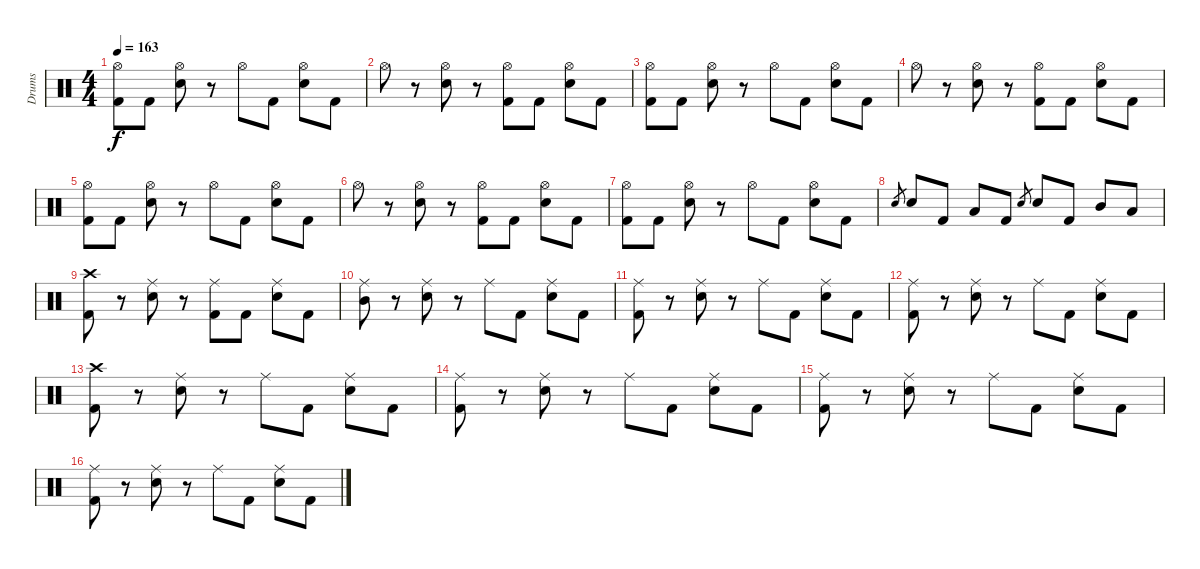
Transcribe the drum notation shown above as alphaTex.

\track ("Drums" "Drums") {instrument percussion}
\staff {score}
\articulation defaults
\ts (4 4)
\tempo 163
\clef neutral
\ks c
("Hi-Hat (open)" "Kick (hit) 2").8{dy f} "Kick (hit) 2".8 ("Hi-Hat (open)" "Electric Snare (hit)").8 r.8 "Hi-Hat (open)".8 "Kick (hit) 2".8 ("Hi-Hat (open)" "Electric Snare (hit)").8 "Kick (hit) 2".8 |
"Hi-Hat (open)".8 r.8 ("Hi-Hat (open)" "Electric Snare (hit)").8 r.8 ("Hi-Hat (open)" "Kick (hit) 2").8 "Kick (hit) 2".8 ("Hi-Hat (open)" "Electric Snare (hit)").8 "Kick (hit) 2".8 |
("Hi-Hat (open)" "Kick (hit) 2").8 "Kick (hit) 2".8 ("Hi-Hat (open)" "Electric Snare (hit)").8 r.8 "Hi-Hat (open)".8 "Kick (hit) 2".8 ("Hi-Hat (open)" "Electric Snare (hit)").8 "Kick (hit) 2".8 |
"Hi-Hat (open)".8 r.8 ("Hi-Hat (open)" "Electric Snare (hit)").8 r.8 ("Hi-Hat (open)" "Kick (hit) 2").8 "Kick (hit) 2".8 ("Hi-Hat (open)" "Electric Snare (hit)").8 "Kick (hit) 2".8 |
("Hi-Hat (open)" "Kick (hit) 2").8 "Kick (hit) 2".8 ("Hi-Hat (open)" "Electric Snare (hit)").8 r.8 "Hi-Hat (open)".8 "Kick (hit) 2".8 ("Hi-Hat (open)" "Electric Snare (hit)").8 "Kick (hit) 2".8 |
"Hi-Hat (open)".8 r.8 ("Hi-Hat (open)" "Electric Snare (hit)").8 r.8 ("Hi-Hat (open)" "Kick (hit) 2").8 "Kick (hit) 2".8 ("Hi-Hat (open)" "Electric Snare (hit)").8 "Kick (hit) 2".8 |
("Hi-Hat (open)" "Kick (hit) 2").8 "Kick (hit) 2".8 ("Hi-Hat (open)" "Electric Snare (hit)").8 r.8 "Hi-Hat (open)".8 "Kick (hit) 2".8 ("Hi-Hat (open)" "Electric Snare (hit)").8 "Kick (hit) 2".8 |
"Electric Snare (hit)".8{gr} "Electric Snare (hit)".8 "Kick (hit) 2".8 "Low Tom (hit)".8 "Kick (hit) 2".8 "Electric Snare (hit)".8{gr} "Electric Snare (hit)".8 "Kick (hit) 2".8 "Mid Tom (hit)".8 "Low Tom (hit)".8 |
("Crash high (hit)" "Kick (hit) 2").8 r.8 ("Ride (middle)" "Electric Snare (hit)").8 r.8 ("Ride (middle)" "Kick (hit) 2").8 "Kick (hit) 2".8 ("Ride (middle)" "Electric Snare (hit)").8 "Kick (hit) 2".8 |
("Ride (middle)" "Mid Tom (hit)").8 r.8 ("Ride (middle)" "Electric Snare (hit)").8 r.8 "Ride (middle)".8 "Kick (hit) 2".8 ("Ride (middle)" "Electric Snare (hit)").8 "Kick (hit) 2".8 |
("Ride (middle)" "Kick (hit) 2").8 r.8 ("Ride (middle)" "Electric Snare (hit)").8 r.8 "Ride (middle)".8 "Kick (hit) 2".8 ("Ride (middle)" "Electric Snare (hit)").8 "Kick (hit) 2".8 |
("Ride (middle)" "Kick (hit) 2").8 r.8 ("Ride (middle)" "Electric Snare (hit)").8 r.8 "Ride (middle)".8 "Kick (hit) 2".8 ("Ride (middle)" "Electric Snare (hit)").8 "Kick (hit) 2".8 |
("Crash high (hit)" "Kick (hit) 2").8 r.8 ("Ride (middle)" "Electric Snare (hit)").8 r.8 "Ride (middle)".8 "Kick (hit) 2".8 ("Ride (middle)" "Electric Snare (hit)").8 "Kick (hit) 2".8 |
("Ride (middle)" "Kick (hit) 2").8 r.8 ("Ride (middle)" "Electric Snare (hit)").8 r.8 "Ride (middle)".8 "Kick (hit) 2".8 ("Ride (middle)" "Electric Snare (hit)").8 "Kick (hit) 2".8 |
("Ride (middle)" "Kick (hit) 2").8 r.8 ("Ride (middle)" "Electric Snare (hit)").8 r.8 "Ride (middle)".8 "Kick (hit) 2".8 ("Ride (middle)" "Electric Snare (hit)").8 "Kick (hit) 2".8 |
("Ride (middle)" "Kick (hit) 2").8 r.8 ("Ride (middle)" "Electric Snare (hit)").8 r.8 "Ride (middle)".8 "Kick (hit) 2".8 ("Ride (middle)" "Electric Snare (hit)").8 "Kick (hit) 2".8
